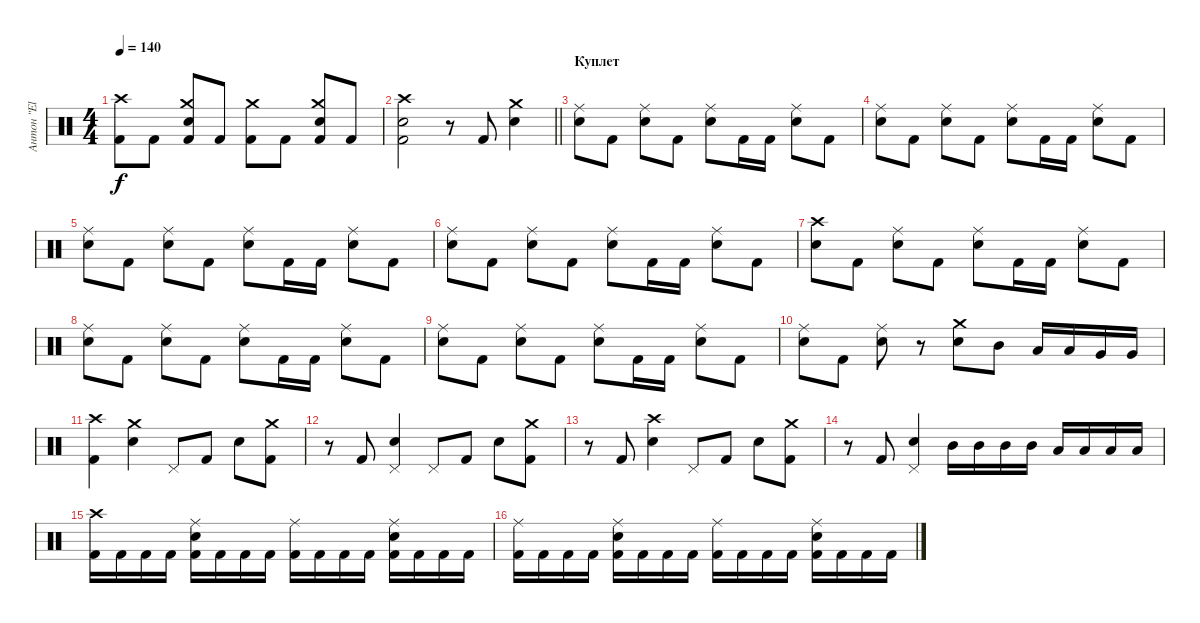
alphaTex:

\track ("Антон \"El Bastardo\" Смольянин" "Антон \"El ") {instrument percussion}
\staff {score}
\articulation defaults
\ts (4 4)
\tempo 140
\clef neutral
\ks c
("Crash high (hit)" "Kick (hit) 2").8{dy f} "Kick (hit) 2".8 ("Crash medium (hit)" "Electric Snare (hit)" "Kick (hit) 2").8 "Kick (hit) 2".8 ("Crash medium (hit)" "Kick (hit) 2").8 "Kick (hit) 2".8 ("Crash medium (hit)" "Electric Snare (hit)" "Kick (hit) 2").8 "Kick (hit) 2".8 |
\barLineRight lightlight
("Crash high (hit)" "Electric Snare (hit)" "Kick (hit) 2").2 r.8 "Kick (hit) 2".8 ("Crash medium (hit)" "Electric Snare (hit)").4 |
\section ("" "Куплет")
("Ride (middle)" "Electric Snare (hit)").8 "Kick (hit) 2".8 ("Ride (middle)" "Electric Snare (hit)").8 "Kick (hit) 2".8 ("Ride (middle)" "Electric Snare (hit)").8 "Kick (hit) 2".16 "Kick (hit) 2".16 ("Ride (middle)" "Electric Snare (hit)").8 "Kick (hit) 2".8 |
("Ride (middle)" "Electric Snare (hit)").8 "Kick (hit) 2".8 ("Ride (middle)" "Electric Snare (hit)").8 "Kick (hit) 2".8 ("Ride (middle)" "Electric Snare (hit)").8 "Kick (hit) 2".16 "Kick (hit) 2".16 ("Ride (middle)" "Electric Snare (hit)").8 "Kick (hit) 2".8 |
("Ride (middle)" "Electric Snare (hit)").8 "Kick (hit) 2".8 ("Ride (middle)" "Electric Snare (hit)").8 "Kick (hit) 2".8 ("Ride (middle)" "Electric Snare (hit)").8 "Kick (hit) 2".16 "Kick (hit) 2".16 ("Ride (middle)" "Electric Snare (hit)").8 "Kick (hit) 2".8 |
("Ride (middle)" "Electric Snare (hit)").8 "Kick (hit) 2".8 ("Ride (middle)" "Electric Snare (hit)").8 "Kick (hit) 2".8 ("Ride (middle)" "Electric Snare (hit)").8 "Kick (hit) 2".16 "Kick (hit) 2".16 ("Ride (middle)" "Electric Snare (hit)").8 "Kick (hit) 2".8 |
("Crash high (hit)" "Electric Snare (hit)").8 "Kick (hit) 2".8 ("Ride (middle)" "Electric Snare (hit)").8 "Kick (hit) 2".8 ("Ride (middle)" "Electric Snare (hit)").8 "Kick (hit) 2".16 "Kick (hit) 2".16 ("Ride (middle)" "Electric Snare (hit)").8 "Kick (hit) 2".8 |
("Ride (middle)" "Electric Snare (hit)").8 "Kick (hit) 2".8 ("Ride (middle)" "Electric Snare (hit)").8 "Kick (hit) 2".8 ("Ride (middle)" "Electric Snare (hit)").8 "Kick (hit) 2".16 "Kick (hit) 2".16 ("Ride (middle)" "Electric Snare (hit)").8 "Kick (hit) 2".8 |
("Ride (middle)" "Electric Snare (hit)").8 "Kick (hit) 2".8 ("Ride (middle)" "Electric Snare (hit)").8 "Kick (hit) 2".8 ("Ride (middle)" "Electric Snare (hit)").8 "Kick (hit) 2".16 "Kick (hit) 2".16 ("Ride (middle)" "Electric Snare (hit)").8 "Kick (hit) 2".8 |
("Ride (middle)" "Electric Snare (hit)").8 "Kick (hit) 2".8 ("Ride (middle)" "Electric Snare (hit)").8 r.8 ("Crash medium (hit)" "Electric Snare (hit)").8 "Mid Tom (hit)".8 "Low Tom (hit)".16 "Low Tom (hit)".16 "Very Low Tom (hit)".16 "Very Low Tom (hit)".16 |
("Crash high (hit)" "Kick (hit) 2").4 ("Crash medium (hit)" "Electric Snare (hit)").4 "Pedal Hi-Hat (hit)".8 "Kick (hit) 2".8 "Electric Snare (hit)".8 ("Crash medium (hit)" "Kick (hit) 2").8 |
r.8 "Kick (hit) 2".8 ("Pedal Hi-Hat (hit)" "Electric Snare (hit)").4 "Pedal Hi-Hat (hit)".8 "Kick (hit) 2".8 "Electric Snare (hit)".8 ("Crash medium (hit)" "Kick (hit) 2").8 |
r.8 "Kick (hit) 2".8 ("Crash high (hit)" "Electric Snare (hit)").4 "Pedal Hi-Hat (hit)".8 "Kick (hit) 2".8 "Electric Snare (hit)".8 ("Crash medium (hit)" "Kick (hit) 2").8 |
r.8 "Kick (hit) 2".8 ("Pedal Hi-Hat (hit)" "Electric Snare (hit)").4 "Mid Tom (hit)".16 "Mid Tom (hit)".16 "Mid Tom (hit)".16 "Mid Tom (hit)".16 "Low Tom (hit)".16 "Low Tom (hit)".16 "Low Tom (hit)".16 "Low Tom (hit)".16 |
("Crash high (hit)" "Kick (hit) 2").16 "Kick (hit) 2".16 "Kick (hit) 2".16 "Kick (hit) 2".16 ("Ride (middle)" "Electric Snare (hit)" "Kick (hit) 2").16 "Kick (hit) 2".16 "Kick (hit) 2".16 "Kick (hit) 2".16 ("Ride (middle)" "Kick (hit) 2").16 "Kick (hit) 2".16 "Kick (hit) 2".16 "Kick (hit) 2".16 ("Ride (middle)" "Electric Snare (hit)" "Kick (hit) 2").16 "Kick (hit) 2".16 "Kick (hit) 2".16 "Kick (hit) 2".16 |
("Ride (middle)" "Kick (hit) 2").16 "Kick (hit) 2".16 "Kick (hit) 2".16 "Kick (hit) 2".16 ("Ride (middle)" "Electric Snare (hit)" "Kick (hit) 2").16 "Kick (hit) 2".16 "Kick (hit) 2".16 "Kick (hit) 2".16 ("Ride (middle)" "Kick (hit) 2").16 "Kick (hit) 2".16 "Kick (hit) 2".16 "Kick (hit) 2".16 ("Ride (middle)" "Electric Snare (hit)" "Kick (hit) 2").16 "Kick (hit) 2".16 "Kick (hit) 2".16 "Kick (hit) 2".16
